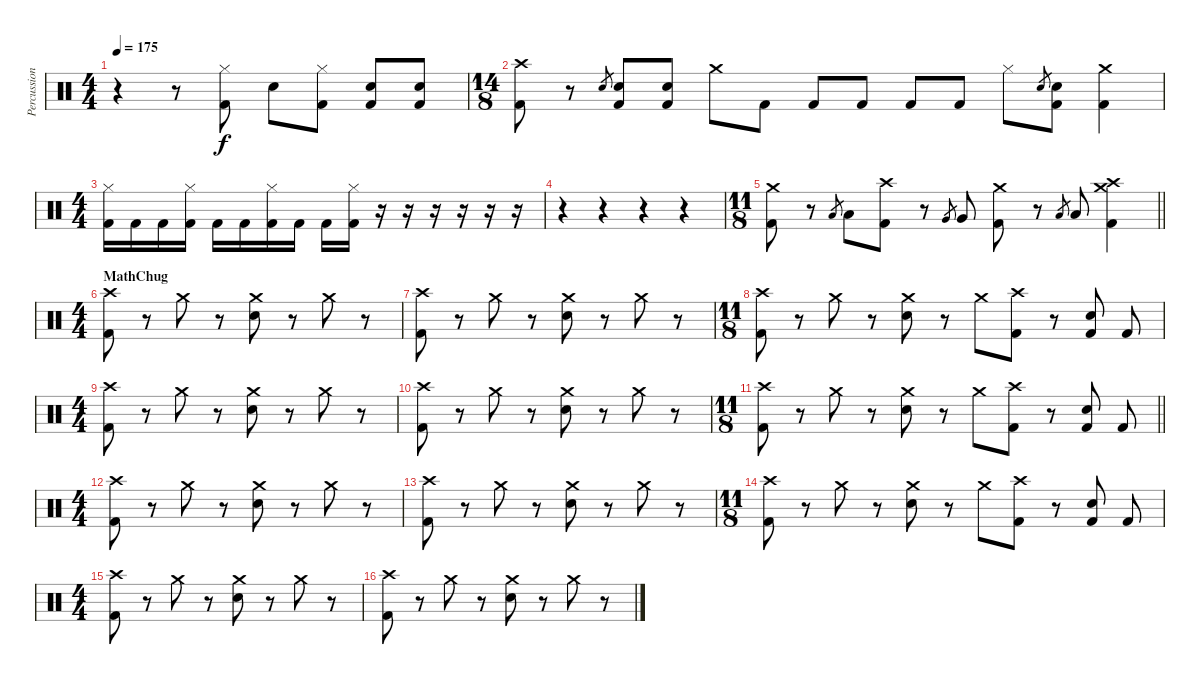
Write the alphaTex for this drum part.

\track ("Percussion" "Percussion") {instrument percussion}
\staff {score}
\articulation defaults
\ts (4 4)
\tempo 175
\clef neutral
\ks c
r.4{dy f} r.8 ("Hi-Hat (closed)" "Kick (hit) 2").8 "Electric Snare (hit)".8 ("Hi-Hat (closed)" "Kick (hit) 2").8 ("Electric Snare (hit)" "Kick (hit) 2").8 ("Electric Snare (hit)" "Kick (hit) 2").8 |
\ts (14 8)
("Crash high (hit)" "Kick (hit) 2").8 r.8 "Electric Snare (hit)".8{gr} ("Electric Snare (hit)" "Kick (hit) 2").8 ("Electric Snare (hit)" "Kick (hit) 2").8 "Crash medium (hit)".8 "Kick (hit) 2".8 "Kick (hit) 2".8 "Kick (hit) 2".8 "Kick (hit) 2".8 "Kick (hit) 2".8 "Hi-Hat (closed)".8 "Electric Snare (hit)".8{gr} ("Electric Snare (hit)" "Kick (hit) 2").8 ("Crash medium (hit)" "Kick (hit) 2").4 |
\ts (4 4)
("Hi-Hat (closed)" "Kick (hit) 2").16 "Kick (hit) 2".16 "Kick (hit) 2".16 ("Hi-Hat (closed)" "Kick (hit) 2").16 "Kick (hit) 2".16 "Kick (hit) 2".16 ("Hi-Hat (closed)" "Kick (hit) 2").16 "Kick (hit) 2".16 "Kick (hit) 2".16 ("Hi-Hat (closed)" "Kick (hit) 2").16 r.16 r.16 r.16 r.16 r.16 r.16 |
r.4 r.4 r.4 r.4 |
\ts (11 8)
\barLineRight lightlight
("Crash medium (hit)" "Kick (hit) 2").8 r.8 "Low Tom (hit)".8{gr} "Low Tom (hit)".8 ("Crash high (hit)" "Kick (hit) 2").8 r.8 "Very Low Tom (hit)".8{gr} "Very Low Tom (hit)".8 ("Crash medium (hit)" "Kick (hit) 2").8 r.8 "Low Floor Tom (hit)".8{gr} "Low Floor Tom (hit)".8 ("Crash high (hit)" "Crash medium (hit)" "Kick (hit) 2").4 |
\ts (4 4)
\section ("" "MathChug")
("Crash high (hit)" "Kick (hit) 2").8 r.8 "Crash medium (hit)".8 r.8 ("Crash medium (hit)" "Electric Snare (hit)").8 r.8 "Crash medium (hit)".8 r.8 |
("Crash high (hit)" "Kick (hit) 2").8 r.8 "Crash medium (hit)".8 r.8 ("Crash medium (hit)" "Electric Snare (hit)").8 r.8 "Crash medium (hit)".8 r.8 |
\ts (11 8)
("Crash high (hit)" "Kick (hit) 2").8 r.8 "Crash medium (hit)".8 r.8 ("Crash medium (hit)" "Electric Snare (hit)").8 r.8 "Crash medium (hit)".8 ("Crash high (hit)" "Kick (hit) 2").8 r.8 ("Electric Snare (hit)" "Kick (hit) 2").8 "Kick (hit) 2".8 |
\ts (4 4)
("Crash high (hit)" "Kick (hit) 2").8 r.8 "Crash medium (hit)".8 r.8 ("Crash medium (hit)" "Electric Snare (hit)").8 r.8 "Crash medium (hit)".8 r.8 |
("Crash high (hit)" "Kick (hit) 2").8 r.8 "Crash medium (hit)".8 r.8 ("Crash medium (hit)" "Electric Snare (hit)").8 r.8 "Crash medium (hit)".8 r.8 |
\ts (11 8)
\barLineRight lightlight
("Crash high (hit)" "Kick (hit) 2").8 r.8 "Crash medium (hit)".8 r.8 ("Crash medium (hit)" "Electric Snare (hit)").8 r.8 "Crash medium (hit)".8 ("Crash high (hit)" "Kick (hit) 2").8 r.8 ("Electric Snare (hit)" "Kick (hit) 2").8 "Kick (hit) 2".8 |
\ts (4 4)
("Crash high (hit)" "Kick (hit) 2").8 r.8 "Crash medium (hit)".8 r.8 ("Crash medium (hit)" "Electric Snare (hit)").8 r.8 "Crash medium (hit)".8 r.8 |
("Crash high (hit)" "Kick (hit) 2").8 r.8 "Crash medium (hit)".8 r.8 ("Crash medium (hit)" "Electric Snare (hit)").8 r.8 "Crash medium (hit)".8 r.8 |
\ts (11 8)
("Crash high (hit)" "Kick (hit) 2").8 r.8 "Crash medium (hit)".8 r.8 ("Crash medium (hit)" "Electric Snare (hit)").8 r.8 "Crash medium (hit)".8 ("Crash high (hit)" "Kick (hit) 2").8 r.8 ("Electric Snare (hit)" "Kick (hit) 2").8 "Kick (hit) 2".8 |
\ts (4 4)
("Crash high (hit)" "Kick (hit) 2").8 r.8 "Crash medium (hit)".8 r.8 ("Crash medium (hit)" "Electric Snare (hit)").8 r.8 "Crash medium (hit)".8 r.8 |
("Crash high (hit)" "Kick (hit) 2").8 r.8 "Crash medium (hit)".8 r.8 ("Crash medium (hit)" "Electric Snare (hit)").8 r.8 "Crash medium (hit)".8 r.8
